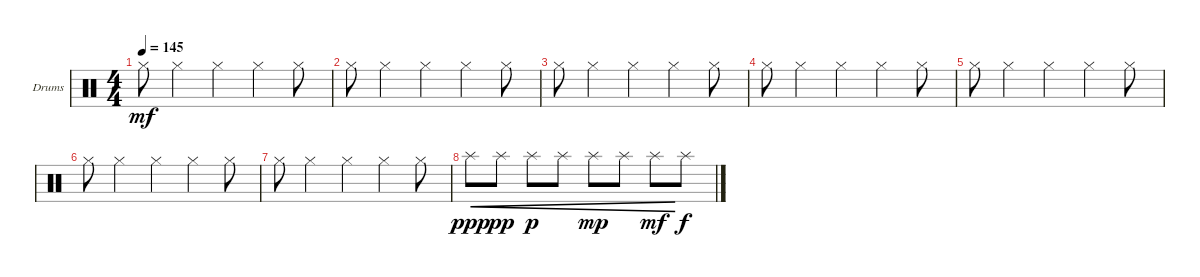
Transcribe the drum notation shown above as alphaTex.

\defaultSystemsLayout 4
\bracketExtendMode groupsimilarinstruments
\firstSystemTrackNameOrientation horizontal
\otherSystemsTrackNameOrientation horizontal
\track ("Drumkit" "Drums") {instrument percussion}
\staff {score}
\articulation defaults
\ts (4 4)
\tempo 145
\clef neutral
\ks c "Hi-Hat (closed)".8{dy mf} "Hi-Hat (closed)".4 "Hi-Hat (closed)".4 "Hi-Hat (closed)".4 "Hi-Hat (closed)".8
|
"Hi-Hat (closed)".8 "Hi-Hat (closed)".4 "Hi-Hat (closed)".4 "Hi-Hat (closed)".4 "Hi-Hat (closed)".8 |
"Hi-Hat (closed)".8 "Hi-Hat (closed)".4 "Hi-Hat (closed)".4 "Hi-Hat (closed)".4 "Hi-Hat (closed)".8 |
"Hi-Hat (closed)".8 "Hi-Hat (closed)".4 "Hi-Hat (closed)".4 "Hi-Hat (closed)".4 "Hi-Hat (closed)".8 |
"Hi-Hat (closed)".8 "Hi-Hat (closed)".4 "Hi-Hat (closed)".4 "Hi-Hat (closed)".4 "Hi-Hat (closed)".8 |
"Hi-Hat (closed)".8 "Hi-Hat (closed)".4 "Hi-Hat (closed)".4 "Hi-Hat (closed)".4 "Hi-Hat (closed)".8 |
"Hi-Hat (closed)".8 "Hi-Hat (closed)".4 "Hi-Hat (closed)".4 "Hi-Hat (closed)".4 "Hi-Hat (closed)".8 |
"Splash (hit)".8{cre dy ppp} "Splash (hit)".8{cre dy pp} "Splash (hit)".8{cre dy p} "Splash (hit)".8{cre} "Splash (hit)".8{cre dy mp} "Splash (hit)".8{cre} "Splash (hit)".8{cre dy mf} "Splash (hit)".8{dy f}
